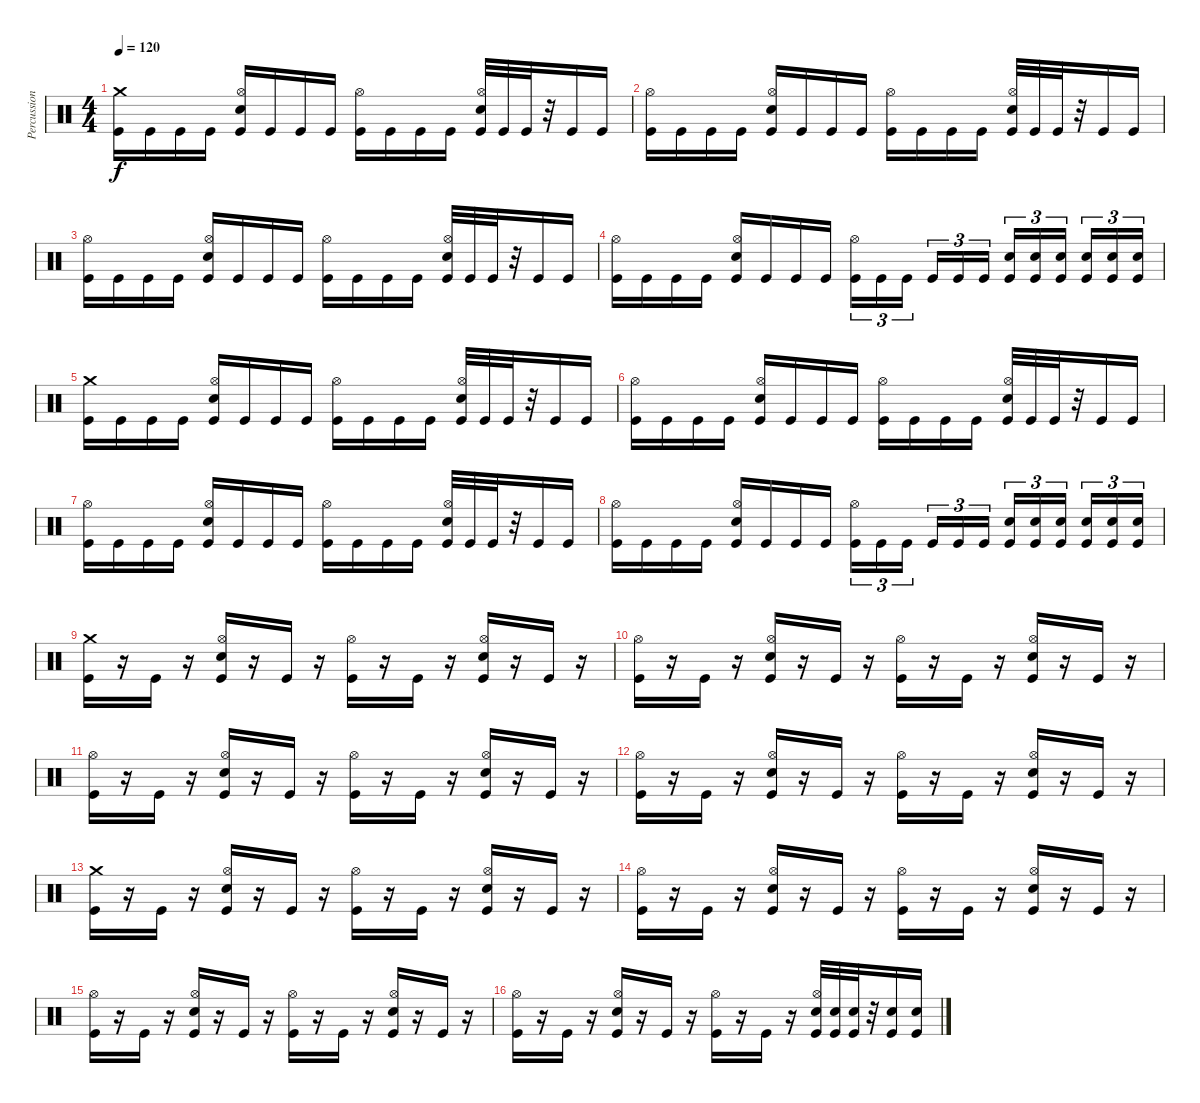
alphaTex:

\track ("Percussion" "Percussion") {instrument percussion}
\staff {score}
\articulation defaults
\ts (4 4)
\tempo 120
\clef neutral
\ks c
("Crash medium (hit)" "Kick (hit)").16{dy f} "Kick (hit)".16 "Kick (hit)".16 "Kick (hit)".16 ("Hi-Hat (open)" "Electric Snare (hit)" "Kick (hit)").16 "Kick (hit)".16 "Kick (hit)".16 "Kick (hit)".16 ("Hi-Hat (open)" "Kick (hit)").16 "Kick (hit)".16 "Kick (hit)".16 "Kick (hit)".16 ("Hi-Hat (open)" "Electric Snare (hit)" "Kick (hit)").32 "Kick (hit)".32 "Kick (hit)".32 r.32 "Kick (hit)".16 "Kick (hit)".16 |
("Hi-Hat (open)" "Kick (hit)").16 "Kick (hit)".16 "Kick (hit)".16 "Kick (hit)".16 ("Hi-Hat (open)" "Electric Snare (hit)" "Kick (hit)").16 "Kick (hit)".16 "Kick (hit)".16 "Kick (hit)".16 ("Hi-Hat (open)" "Kick (hit)").16 "Kick (hit)".16 "Kick (hit)".16 "Kick (hit)".16 ("Hi-Hat (open)" "Electric Snare (hit)" "Kick (hit)").32 "Kick (hit)".32 "Kick (hit)".32 r.32 "Kick (hit)".16 "Kick (hit)".16 |
("Hi-Hat (open)" "Kick (hit)").16 "Kick (hit)".16 "Kick (hit)".16 "Kick (hit)".16 ("Hi-Hat (open)" "Electric Snare (hit)" "Kick (hit)").16 "Kick (hit)".16 "Kick (hit)".16 "Kick (hit)".16 ("Hi-Hat (open)" "Kick (hit)").16 "Kick (hit)".16 "Kick (hit)".16 "Kick (hit)".16 ("Hi-Hat (open)" "Electric Snare (hit)" "Kick (hit)").32 "Kick (hit)".32 "Kick (hit)".32 r.32 "Kick (hit)".16 "Kick (hit)".16 |
("Hi-Hat (open)" "Kick (hit)").16 "Kick (hit)".16 "Kick (hit)".16 "Kick (hit)".16 ("Hi-Hat (open)" "Electric Snare (hit)" "Kick (hit)").16 "Kick (hit)".16 "Kick (hit)".16 "Kick (hit)".16 ("Hi-Hat (open)" "Kick (hit)").16{tu (3 2)} "Kick (hit)".16{tu (3 2)} "Kick (hit)".16{tu (3 2)} "Kick (hit)".16{tu (3 2)} "Kick (hit)".16{tu (3 2)} "Kick (hit)".16{tu (3 2)} ("Electric Snare (hit)" "Kick (hit)").16{tu (3 2)} ("Electric Snare (hit)" "Kick (hit)").16{tu (3 2)} ("Electric Snare (hit)" "Kick (hit)").16{tu (3 2)} ("Electric Snare (hit)" "Kick (hit)").16{tu (3 2)} ("Electric Snare (hit)" "Kick (hit)").16{tu (3 2)} ("Electric Snare (hit)" "Kick (hit)").16{tu (3 2)} |
("Crash medium (hit)" "Kick (hit)").16 "Kick (hit)".16 "Kick (hit)".16 "Kick (hit)".16 ("Hi-Hat (open)" "Electric Snare (hit)" "Kick (hit)").16 "Kick (hit)".16 "Kick (hit)".16 "Kick (hit)".16 ("Hi-Hat (open)" "Kick (hit)").16 "Kick (hit)".16 "Kick (hit)".16 "Kick (hit)".16 ("Hi-Hat (open)" "Electric Snare (hit)" "Kick (hit)").32 "Kick (hit)".32 "Kick (hit)".32 r.32 "Kick (hit)".16 "Kick (hit)".16 |
("Hi-Hat (open)" "Kick (hit)").16 "Kick (hit)".16 "Kick (hit)".16 "Kick (hit)".16 ("Hi-Hat (open)" "Electric Snare (hit)" "Kick (hit)").16 "Kick (hit)".16 "Kick (hit)".16 "Kick (hit)".16 ("Hi-Hat (open)" "Kick (hit)").16 "Kick (hit)".16 "Kick (hit)".16 "Kick (hit)".16 ("Hi-Hat (open)" "Electric Snare (hit)" "Kick (hit)").32 "Kick (hit)".32 "Kick (hit)".32 r.32 "Kick (hit)".16 "Kick (hit)".16 |
("Hi-Hat (open)" "Kick (hit)").16 "Kick (hit)".16 "Kick (hit)".16 "Kick (hit)".16 ("Hi-Hat (open)" "Electric Snare (hit)" "Kick (hit)").16 "Kick (hit)".16 "Kick (hit)".16 "Kick (hit)".16 ("Hi-Hat (open)" "Kick (hit)").16 "Kick (hit)".16 "Kick (hit)".16 "Kick (hit)".16 ("Hi-Hat (open)" "Electric Snare (hit)" "Kick (hit)").32 "Kick (hit)".32 "Kick (hit)".32 r.32 "Kick (hit)".16 "Kick (hit)".16 |
("Hi-Hat (open)" "Kick (hit)").16 "Kick (hit)".16 "Kick (hit)".16 "Kick (hit)".16 ("Hi-Hat (open)" "Electric Snare (hit)" "Kick (hit)").16 "Kick (hit)".16 "Kick (hit)".16 "Kick (hit)".16 ("Hi-Hat (open)" "Kick (hit)").16{tu (3 2)} "Kick (hit)".16{tu (3 2)} "Kick (hit)".16{tu (3 2)} "Kick (hit)".16{tu (3 2)} "Kick (hit)".16{tu (3 2)} "Kick (hit)".16{tu (3 2)} ("Electric Snare (hit)" "Kick (hit)").16{tu (3 2)} ("Electric Snare (hit)" "Kick (hit)").16{tu (3 2)} ("Electric Snare (hit)" "Kick (hit)").16{tu (3 2)} ("Electric Snare (hit)" "Kick (hit)").16{tu (3 2)} ("Electric Snare (hit)" "Kick (hit)").16{tu (3 2)} ("Electric Snare (hit)" "Kick (hit)").16{tu (3 2)} |
("Crash medium (hit)" "Kick (hit)").16 r.16 "Kick (hit)".16 r.16 ("Hi-Hat (open)" "Electric Snare (hit)" "Kick (hit)").16 r.16 "Kick (hit)".16 r.16 ("Hi-Hat (open)" "Kick (hit)").16 r.16 "Kick (hit)".16 r.16 ("Hi-Hat (open)" "Electric Snare (hit)" "Kick (hit)").16 r.16 "Kick (hit)".16 r.16 |
("Hi-Hat (open)" "Kick (hit)").16 r.16 "Kick (hit)".16 r.16 ("Hi-Hat (open)" "Electric Snare (hit)" "Kick (hit)").16 r.16 "Kick (hit)".16 r.16 ("Hi-Hat (open)" "Kick (hit)").16 r.16 "Kick (hit)".16 r.16 ("Hi-Hat (open)" "Electric Snare (hit)" "Kick (hit)").16 r.16 "Kick (hit)".16 r.16 |
("Hi-Hat (open)" "Kick (hit)").16 r.16 "Kick (hit)".16 r.16 ("Hi-Hat (open)" "Electric Snare (hit)" "Kick (hit)").16 r.16 "Kick (hit)".16 r.16 ("Hi-Hat (open)" "Kick (hit)").16 r.16 "Kick (hit)".16 r.16 ("Hi-Hat (open)" "Electric Snare (hit)" "Kick (hit)").16 r.16 "Kick (hit)".16 r.16 |
("Hi-Hat (open)" "Kick (hit)").16 r.16 "Kick (hit)".16 r.16 ("Hi-Hat (open)" "Electric Snare (hit)" "Kick (hit)").16 r.16 "Kick (hit)".16 r.16 ("Hi-Hat (open)" "Kick (hit)").16 r.16 "Kick (hit)".16 r.16 ("Hi-Hat (open)" "Electric Snare (hit)" "Kick (hit)").16 r.16 "Kick (hit)".16 r.16 |
("Crash medium (hit)" "Kick (hit)").16 r.16 "Kick (hit)".16 r.16 ("Hi-Hat (open)" "Electric Snare (hit)" "Kick (hit)").16 r.16 "Kick (hit)".16 r.16 ("Hi-Hat (open)" "Kick (hit)").16 r.16 "Kick (hit)".16 r.16 ("Hi-Hat (open)" "Electric Snare (hit)" "Kick (hit)").16 r.16 "Kick (hit)".16 r.16 |
("Hi-Hat (open)" "Kick (hit)").16 r.16 "Kick (hit)".16 r.16 ("Hi-Hat (open)" "Electric Snare (hit)" "Kick (hit)").16 r.16 "Kick (hit)".16 r.16 ("Hi-Hat (open)" "Kick (hit)").16 r.16 "Kick (hit)".16 r.16 ("Hi-Hat (open)" "Electric Snare (hit)" "Kick (hit)").16 r.16 "Kick (hit)".16 r.16 |
("Hi-Hat (open)" "Kick (hit)").16 r.16 "Kick (hit)".16 r.16 ("Hi-Hat (open)" "Electric Snare (hit)" "Kick (hit)").16 r.16 "Kick (hit)".16 r.16 ("Hi-Hat (open)" "Kick (hit)").16 r.16 "Kick (hit)".16 r.16 ("Hi-Hat (open)" "Electric Snare (hit)" "Kick (hit)").16 r.16 "Kick (hit)".16 r.16 |
("Hi-Hat (open)" "Kick (hit)").16 r.16 "Kick (hit)".16 r.16 ("Hi-Hat (open)" "Electric Snare (hit)" "Kick (hit)").16 r.16 "Kick (hit)".16 r.16 ("Hi-Hat (open)" "Kick (hit)").16 r.16 "Kick (hit)".16 r.16 ("Hi-Hat (open)" "Electric Snare (hit)" "Kick (hit)").32 ("Electric Snare (hit)" "Kick (hit)").32 ("Electric Snare (hit)" "Kick (hit)").32 r.32 ("Electric Snare (hit)" "Kick (hit)").16 ("Electric Snare (hit)" "Kick (hit)").16
